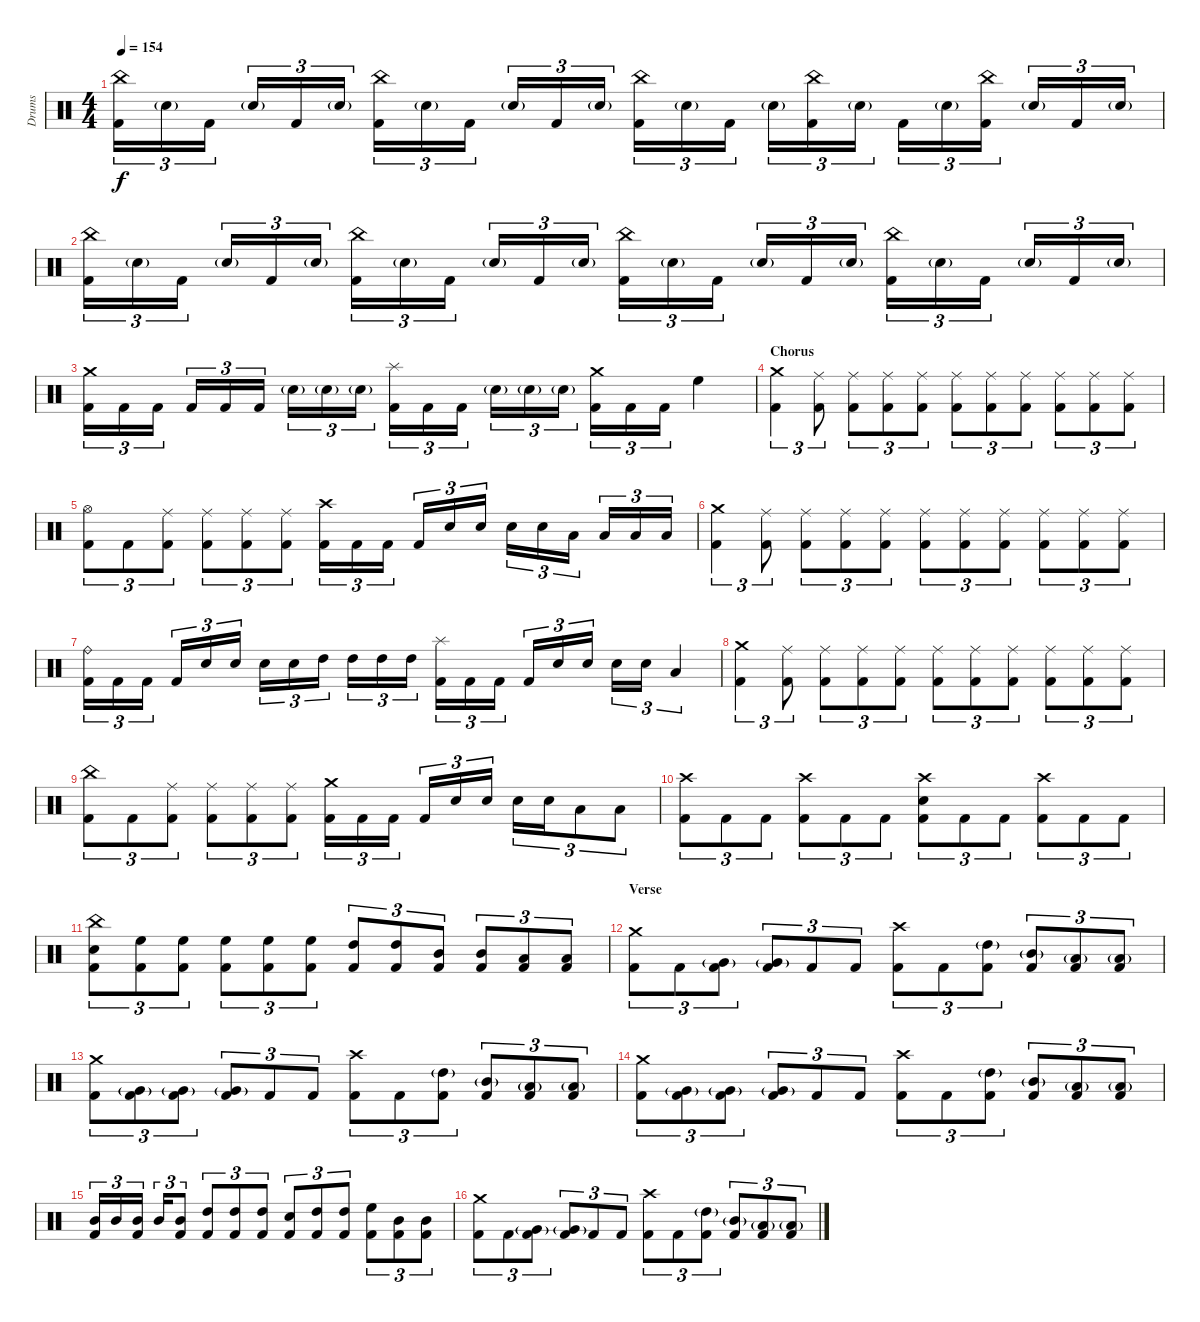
\track ("Drums" "Drums") {instrument percussion}
\staff {score}
\articulation defaults
\ts (4 4)
\tempo 154
\clef neutral
\ks c
("China (hit)" "Kick (hit) 2").16{tu (3 2) dy f} "Snare (hit) 2"{g}.16{tu (3 2)} "Kick (hit) 2".16{tu (3 2)} "Snare (hit) 2"{g}.16{tu (3 2)} "Kick (hit) 2".16{tu (3 2)} "Snare (hit) 2"{g}.16{tu (3 2)} ("China (hit)" "Kick (hit) 2").16{tu (3 2)} "Snare (hit) 2"{g}.16{tu (3 2)} "Kick (hit) 2".16{tu (3 2)} "Snare (hit) 2"{g}.16{tu (3 2)} "Kick (hit) 2".16{tu (3 2)} "Snare (hit) 2"{g}.16{tu (3 2)} ("China (hit)" "Kick (hit) 2").16{tu (3 2)} "Snare (hit) 2"{g}.16{tu (3 2)} "Kick (hit) 2".16{tu (3 2)} "Snare (hit) 2"{g}.16{tu (3 2)} ("China (hit)" "Kick (hit) 2").16{tu (3 2)} "Snare (hit) 2"{g}.16{tu (3 2)} "Kick (hit) 2".16{tu (3 2)} "Snare (hit) 2"{g}.16{tu (3 2)} ("China (hit)" "Kick (hit) 2").16{tu (3 2)} "Snare (hit) 2"{g}.16{tu (3 2)} "Kick (hit) 2".16{tu (3 2)} "Snare (hit) 2"{g}.16{tu (3 2)} |
("China (hit)" "Kick (hit) 2").16{tu (3 2)} "Snare (hit) 2"{g}.16{tu (3 2)} "Kick (hit) 2".16{tu (3 2)} "Snare (hit) 2"{g}.16{tu (3 2)} "Kick (hit) 2".16{tu (3 2)} "Snare (hit) 2"{g}.16{tu (3 2)} ("China (hit)" "Kick (hit) 2").16{tu (3 2)} "Snare (hit) 2"{g}.16{tu (3 2)} "Kick (hit) 2".16{tu (3 2)} "Snare (hit) 2"{g}.16{tu (3 2)} "Kick (hit) 2".16{tu (3 2)} "Snare (hit) 2"{g}.16{tu (3 2)} ("China (hit)" "Kick (hit) 2").16{tu (3 2)} "Snare (hit) 2"{g}.16{tu (3 2)} "Kick (hit) 2".16{tu (3 2)} "Snare (hit) 2"{g}.16{tu (3 2)} "Kick (hit) 2".16{tu (3 2)} "Snare (hit) 2"{g}.16{tu (3 2)} ("China (hit)" "Kick (hit) 2").16{tu (3 2)} "Snare (hit) 2"{g}.16{tu (3 2)} "Kick (hit) 2".16{tu (3 2)} "Snare (hit) 2"{g}.16{tu (3 2)} "Kick (hit) 2".16{tu (3 2)} "Snare (hit) 2"{g}.16{tu (3 2)} |
("Crash medium (hit)" "Kick (hit) 2").16{tu (3 2)} "Kick (hit) 2".16{tu (3 2)} "Kick (hit) 2".16{tu (3 2)} "Kick (hit) 2".16{tu (3 2)} "Kick (hit) 2".16{tu (3 2)} "Kick (hit) 2".16{tu (3 2)} "Snare (hit) 2"{g}.16{tu (3 2)} "Snare (hit) 2"{g}.16{tu (3 2)} "Snare (hit) 2"{g}.16{tu (3 2)} ("Splash (hit)" "Kick (hit) 2").16{tu (3 2)} "Kick (hit) 2".16{tu (3 2)} "Kick (hit) 2".16{tu (3 2)} "Snare (hit) 2"{g}.16{tu (3 2)} "Snare (hit) 2"{g}.16{tu (3 2)} "Snare (hit) 2"{g}.16{tu (3 2)} ("Crash medium (hit)" "Kick (hit) 2").16{tu (3 2)} "Kick (hit) 2".16{tu (3 2)} "Kick (hit) 2".16{tu (3 2)} "High Floor Tom (hit)".4 |
\section ("" "Chorus")
("Crash medium (hit)" "Kick (hit) 2").4{tu (3 2)} ("Ride (middle)" "Kick (hit) 2").8{tu (3 2)} ("Ride (middle)" "Kick (hit) 2").8{tu (3 2)} ("Ride (middle)" "Kick (hit) 2").8{tu (3 2)} ("Ride (middle)" "Kick (hit) 2").8{tu (3 2)} ("Ride (middle)" "Kick (hit) 2").8{tu (3 2)} ("Ride (middle)" "Kick (hit) 2").8{tu (3 2)} ("Ride (middle)" "Kick (hit) 2").8{tu (3 2)} ("Ride (middle)" "Kick (hit) 2").8{tu (3 2)} ("Ride (middle)" "Kick (hit) 2").8{tu (3 2)} ("Ride (middle)" "Kick (hit) 2").8{tu (3 2)} |
("Hi-Hat (open)" "Kick (hit) 2").8{tu (3 2)} "Kick (hit) 2".8{tu (3 2)} ("Ride (middle)" "Kick (hit) 2").8{tu (3 2)} ("Ride (middle)" "Kick (hit) 2").8{tu (3 2)} ("Ride (middle)" "Kick (hit) 2").8{tu (3 2)} ("Ride (middle)" "Kick (hit) 2").8{tu (3 2)} ("Crash high (hit)" "Kick (hit) 2").16{tu (3 2)} "Kick (hit) 2".16{tu (3 2)} "Kick (hit) 2".16{tu (3 2)} "Kick (hit) 2".16{tu (3 2)} "Snare (hit) 2".16{tu (3 2)} "Snare (hit) 2".16{tu (3 2)} "Snare (hit) 2".16{tu (3 2)} "Snare (hit) 2".16{tu (3 2)} "Low Tom (hit)".16{tu (3 2)} "Low Tom (hit)".16{tu (3 2)} "Low Tom (hit)".16{tu (3 2)} "Low Tom (hit)".16{tu (3 2)} |
("Crash medium (hit)" "Kick (hit) 2").4{tu (3 2)} ("Ride (middle)" "Kick (hit) 2").8{tu (3 2)} ("Ride (middle)" "Kick (hit) 2").8{tu (3 2)} ("Ride (middle)" "Kick (hit) 2").8{tu (3 2)} ("Ride (middle)" "Kick (hit) 2").8{tu (3 2)} ("Ride (middle)" "Kick (hit) 2").8{tu (3 2)} ("Ride (middle)" "Kick (hit) 2").8{tu (3 2)} ("Ride (middle)" "Kick (hit) 2").8{tu (3 2)} ("Ride (middle)" "Kick (hit) 2").8{tu (3 2)} ("Ride (middle)" "Kick (hit) 2").8{tu (3 2)} ("Ride (middle)" "Kick (hit) 2").8{tu (3 2)} |
("Ride (bell)" "Kick (hit) 2").16{tu (3 2)} "Kick (hit) 2".16{tu (3 2)} "Kick (hit) 2".16{tu (3 2)} "Kick (hit) 2".16{tu (3 2)} "Snare (hit) 2".16{tu (3 2)} "Snare (hit) 2".16{tu (3 2)} "Snare (hit) 2".16{tu (3 2)} "Snare (hit) 2".16{tu (3 2)} "High Tom (hit)".16{tu (3 2)} "High Tom (hit)".16{tu (3 2)} "High Tom (hit)".16{tu (3 2)} "High Tom (hit)".16{tu (3 2)} ("Splash (hit)" "Kick (hit) 2").16{tu (3 2)} "Kick (hit) 2".16{tu (3 2)} "Kick (hit) 2".16{tu (3 2)} "Kick (hit) 2".16{tu (3 2)} "Snare (hit) 2".16{tu (3 2)} "Snare (hit) 2".16{tu (3 2)} "Snare (hit) 2".16{tu (3 2)} "Snare (hit) 2".16{tu (3 2)} "Low Tom (hit)".4{tu (3 2)} |
("Crash medium (hit)" "Kick (hit) 2").4{tu (3 2)} ("Ride (middle)" "Kick (hit) 2").8{tu (3 2)} ("Ride (middle)" "Kick (hit) 2").8{tu (3 2)} ("Ride (middle)" "Kick (hit) 2").8{tu (3 2)} ("Ride (middle)" "Kick (hit) 2").8{tu (3 2)} ("Ride (middle)" "Kick (hit) 2").8{tu (3 2)} ("Ride (middle)" "Kick (hit) 2").8{tu (3 2)} ("Ride (middle)" "Kick (hit) 2").8{tu (3 2)} ("Ride (middle)" "Kick (hit) 2").8{tu (3 2)} ("Ride (middle)" "Kick (hit) 2").8{tu (3 2)} ("Ride (middle)" "Kick (hit) 2").8{tu (3 2)} |
("China (hit)" "Kick (hit) 2").8{tu (3 2)} "Kick (hit) 2".8{tu (3 2)} ("Ride (middle)" "Kick (hit) 2").8{tu (3 2)} ("Ride (middle)" "Kick (hit) 2").8{tu (3 2)} ("Ride (middle)" "Kick (hit) 2").8{tu (3 2)} ("Ride (middle)" "Kick (hit) 2").8{tu (3 2)} ("Crash medium (hit)" "Kick (hit) 2").16{tu (3 2)} "Kick (hit) 2".16{tu (3 2)} "Kick (hit) 2".16{tu (3 2)} "Kick (hit) 2".16{tu (3 2)} "Snare (hit) 2".16{tu (3 2)} "Snare (hit) 2".16{tu (3 2)} "Snare (hit) 2".16{tu (3 2)} "Snare (hit) 2".16{tu (3 2)} "Low Tom (hit)".8{tu (3 2)} "Low Tom (hit)".8{tu (3 2)} |
("Crash high (hit)" "Kick (hit) 2").8{tu (3 2)} "Kick (hit) 2".8{tu (3 2)} "Kick (hit) 2".8{tu (3 2)} ("Crash high (hit)" "Kick (hit) 2").8{tu (3 2)} "Kick (hit) 2".8{tu (3 2)} "Kick (hit) 2".8{tu (3 2)} ("Crash high (hit)" "Snare (hit) 2" "Kick (hit) 2").8{tu (3 2)} "Kick (hit) 2".8{tu (3 2)} "Kick (hit) 2".8{tu (3 2)} ("Crash high (hit)" "Kick (hit) 2").8{tu (3 2)} "Kick (hit) 2".8{tu (3 2)} "Kick (hit) 2".8{tu (3 2)} |
("China (hit)" "Snare (hit) 2" "Kick (hit) 2").8{tu (3 2)} ("High Floor Tom (hit)" "Kick (hit) 2").8{tu (3 2)} ("High Floor Tom (hit)" "Kick (hit) 2").8{tu (3 2)} ("High Floor Tom (hit)" "Kick (hit) 2").8{tu (3 2)} ("High Floor Tom (hit)" "Kick (hit) 2").8{tu (3 2)} ("High Floor Tom (hit)" "Kick (hit) 2").8{tu (3 2)} ("High Tom (hit)" "Kick (hit) 2").8{tu (3 2)} ("High Tom (hit)" "Kick (hit) 2").8{tu (3 2)} ("Mid Tom (hit)" "Kick (hit) 2").8{tu (3 2)} ("Mid Tom (hit)" "Kick (hit) 2").8{tu (3 2)} ("Low Tom (hit)" "Kick (hit) 2").8{tu (3 2)} ("Low Tom (hit)" "Kick (hit) 2").8{tu (3 2)} |
\section ("" "Verse")
("Crash medium (hit)" "Kick (hit) 2").8{tu (3 2)} "Kick (hit) 2".8{tu (3 2)} ("Very Low Tom (hit)"{g} "Kick (hit) 2").8{tu (3 2)} ("Very Low Tom (hit)"{g} "Kick (hit) 2").8{tu (3 2)} "Kick (hit) 2".8{tu (3 2)} "Kick (hit) 2".8{tu (3 2)} ("Crash high (hit)" "Kick (hit) 2").8{tu (3 2)} "Kick (hit) 2".8{tu (3 2)} ("High Tom (hit)"{g} "Kick (hit) 2").8{tu (3 2)} ("Mid Tom (hit)"{g} "Kick (hit) 2").8{tu (3 2)} ("Low Tom (hit)"{g} "Kick (hit) 2").8{tu (3 2)} ("Low Tom (hit)"{g} "Kick (hit) 2").8{tu (3 2)} |
("Crash medium (hit)" "Kick (hit) 2").8{tu (3 2)} ("Very Low Tom (hit)"{g} "Kick (hit) 2").8{tu (3 2)} ("Very Low Tom (hit)"{g} "Kick (hit) 2").8{tu (3 2)} ("Very Low Tom (hit)"{g} "Kick (hit) 2").8{tu (3 2)} "Kick (hit) 2".8{tu (3 2)} "Kick (hit) 2".8{tu (3 2)} ("Crash high (hit)" "Kick (hit) 2").8{tu (3 2)} "Kick (hit) 2".8{tu (3 2)} ("High Tom (hit)"{g} "Kick (hit) 2").8{tu (3 2)} ("Mid Tom (hit)"{g} "Kick (hit) 2").8{tu (3 2)} ("Low Tom (hit)"{g} "Kick (hit) 2").8{tu (3 2)} ("Low Tom (hit)"{g} "Kick (hit) 2").8{tu (3 2)} |
("Crash medium (hit)" "Kick (hit) 2").8{tu (3 2)} ("Very Low Tom (hit)"{g} "Kick (hit) 2").8{tu (3 2)} ("Very Low Tom (hit)"{g} "Kick (hit) 2").8{tu (3 2)} ("Very Low Tom (hit)"{g} "Kick (hit) 2").8{tu (3 2)} "Kick (hit) 2".8{tu (3 2)} "Kick (hit) 2".8{tu (3 2)} ("Crash high (hit)" "Kick (hit) 2").8{tu (3 2)} "Kick (hit) 2".8{tu (3 2)} ("High Tom (hit)"{g} "Kick (hit) 2").8{tu (3 2)} ("Mid Tom (hit)"{g} "Kick (hit) 2").8{tu (3 2)} ("Low Tom (hit)"{g} "Kick (hit) 2").8{tu (3 2)} ("Low Tom (hit)"{g} "Kick (hit) 2").8{tu (3 2)} |
("Mid Tom (hit)" "Kick (hit) 2").16{tu (3 2)} "Mid Tom (hit)".16{tu (3 2)} ("Mid Tom (hit)" "Kick (hit) 2").16{tu (3 2)} "Mid Tom (hit)".16{tu (3 2)} ("Mid Tom (hit)" "Kick (hit) 2").8{tu (3 2)} ("High Tom (hit)" "Kick (hit) 2").8{tu (3 2)} ("High Tom (hit)" "Kick (hit) 2").8{tu (3 2)} ("High Tom (hit)" "Kick (hit) 2").8{tu (3 2)} ("Snare (hit) 2" "Kick (hit) 2").8{tu (3 2)} ("High Tom (hit)" "Kick (hit) 2").8{tu (3 2)} ("High Tom (hit)" "Kick (hit) 2").8{tu (3 2)} ("High Floor Tom (hit)" "Kick (hit) 2").8{tu (3 2)} ("Mid Tom (hit)" "Kick (hit) 2").8{tu (3 2)} ("Mid Tom (hit)" "Kick (hit) 2").8{tu (3 2)} |
("Crash medium (hit)" "Kick (hit) 2").8{tu (3 2)} "Kick (hit) 2".8{tu (3 2)} ("Very Low Tom (hit)"{g} "Kick (hit) 2").8{tu (3 2)} ("Very Low Tom (hit)"{g} "Kick (hit) 2").8{tu (3 2)} "Kick (hit) 2".8{tu (3 2)} "Kick (hit) 2".8{tu (3 2)} ("Crash high (hit)" "Kick (hit) 2").8{tu (3 2)} "Kick (hit) 2".8{tu (3 2)} ("High Tom (hit)"{g} "Kick (hit) 2").8{tu (3 2)} ("Mid Tom (hit)"{g} "Kick (hit) 2").8{tu (3 2)} ("Low Tom (hit)"{g} "Kick (hit) 2").8{tu (3 2)} ("Low Tom (hit)"{g} "Kick (hit) 2").8{tu (3 2)}
